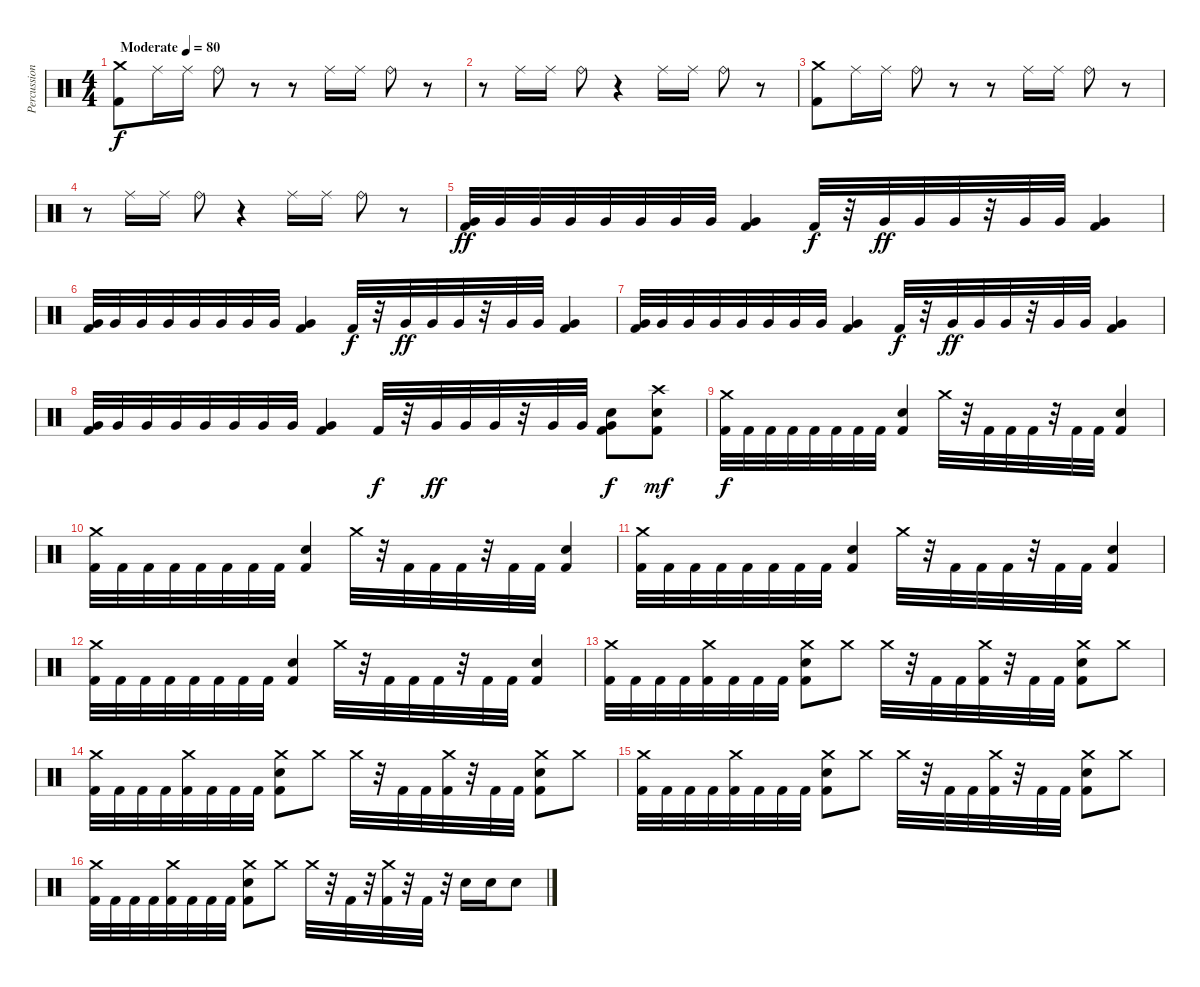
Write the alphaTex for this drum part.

\track ("Percussion" "Percussion") {instrument percussion}
\staff {score}
\articulation defaults
\ts (4 4)
\tempo (80 "Moderate")
\clef neutral
\ks c
("Crash medium (hit)" "Kick (hit) 2").8{dy f} "Ride (middle)".16 "Ride (middle)".16 "Ride (bell)".8 r.8 r.8 "Ride (middle)".16 "Ride (middle)".16 "Ride (bell)".8 r.8 |
r.8 "Ride (middle)".16 "Ride (middle)".16 "Ride (bell)".8 r.4 "Ride (middle)".16 "Ride (middle)".16 "Ride (bell)".8 r.8 |
("Crash medium (hit)" "Kick (hit) 2").8 "Ride (middle)".16 "Ride (middle)".16 "Ride (bell)".8 r.8 r.8 "Ride (middle)".16 "Ride (middle)".16 "Ride (bell)".8 r.8 |
r.8 "Ride (middle)".16 "Ride (middle)".16 "Ride (bell)".8 r.4 "Ride (middle)".16 "Ride (middle)".16 "Ride (bell)".8 r.8 |
("Very Low Tom (hit)" "Kick (hit) 2").32{dy ff} "Very Low Tom (hit)".32 "Very Low Tom (hit)".32 "Very Low Tom (hit)".32 "Very Low Tom (hit)".32 "Very Low Tom (hit)".32 "Very Low Tom (hit)".32 "Very Low Tom (hit)".32 ("Very Low Tom (hit)" "Kick (hit) 2").4 "Kick (hit) 2".32{dy f} r.32 "Very Low Tom (hit)".32{dy ff} "Very Low Tom (hit)".32 "Very Low Tom (hit)".32 r.32 "Very Low Tom (hit)".32 "Very Low Tom (hit)".32 ("Very Low Tom (hit)" "Kick (hit) 2").4 |
("Very Low Tom (hit)" "Kick (hit) 2").32 "Very Low Tom (hit)".32 "Very Low Tom (hit)".32 "Very Low Tom (hit)".32 "Very Low Tom (hit)".32 "Very Low Tom (hit)".32 "Very Low Tom (hit)".32 "Very Low Tom (hit)".32 ("Very Low Tom (hit)" "Kick (hit) 2").4 "Kick (hit) 2".32{dy f} r.32 "Very Low Tom (hit)".32{dy ff} "Very Low Tom (hit)".32 "Very Low Tom (hit)".32 r.32 "Very Low Tom (hit)".32 "Very Low Tom (hit)".32 ("Very Low Tom (hit)" "Kick (hit) 2").4 |
("Very Low Tom (hit)" "Kick (hit) 2").32 "Very Low Tom (hit)".32 "Very Low Tom (hit)".32 "Very Low Tom (hit)".32 "Very Low Tom (hit)".32 "Very Low Tom (hit)".32 "Very Low Tom (hit)".32 "Very Low Tom (hit)".32 ("Very Low Tom (hit)" "Kick (hit) 2").4 "Kick (hit) 2".32{dy f} r.32 "Very Low Tom (hit)".32{dy ff} "Very Low Tom (hit)".32 "Very Low Tom (hit)".32 r.32 "Very Low Tom (hit)".32 "Very Low Tom (hit)".32 ("Very Low Tom (hit)" "Kick (hit) 2").4 |
("Very Low Tom (hit)" "Kick (hit) 2").32 "Very Low Tom (hit)".32 "Very Low Tom (hit)".32 "Very Low Tom (hit)".32 "Very Low Tom (hit)".32 "Very Low Tom (hit)".32 "Very Low Tom (hit)".32 "Very Low Tom (hit)".32 ("Very Low Tom (hit)" "Kick (hit) 2").4 "Kick (hit) 2".32{dy f} r.32 "Very Low Tom (hit)".32{dy ff} "Very Low Tom (hit)".32 "Very Low Tom (hit)".32 r.32 "Very Low Tom (hit)".32 "Very Low Tom (hit)".32 ("Electric Snare (hit)" "Very Low Tom (hit)" "Kick (hit) 2").8{dy f} ("Crash high (hit)" "Electric Snare (hit)" "Kick (hit) 2").8{dy mf} |
("Crash medium (hit)" "Kick (hit) 2").32{dy f} "Kick (hit) 2".32 "Kick (hit) 2".32 "Kick (hit) 2".32 "Kick (hit) 2".32 "Kick (hit) 2".32 "Kick (hit) 2".32 "Kick (hit) 2".32 ("Electric Snare (hit)" "Kick (hit) 2").4 "Crash medium (hit)".32 r.32 "Kick (hit) 2".32 "Kick (hit) 2".32 "Kick (hit) 2".32 r.32 "Kick (hit) 2".32 "Kick (hit) 2".32 ("Electric Snare (hit)" "Kick (hit) 2").4 |
("Crash medium (hit)" "Kick (hit) 2").32 "Kick (hit) 2".32 "Kick (hit) 2".32 "Kick (hit) 2".32 "Kick (hit) 2".32 "Kick (hit) 2".32 "Kick (hit) 2".32 "Kick (hit) 2".32 ("Electric Snare (hit)" "Kick (hit) 2").4 "Crash medium (hit)".32 r.32 "Kick (hit) 2".32 "Kick (hit) 2".32 "Kick (hit) 2".32 r.32 "Kick (hit) 2".32 "Kick (hit) 2".32 ("Electric Snare (hit)" "Kick (hit) 2").4 |
("Crash medium (hit)" "Kick (hit) 2").32 "Kick (hit) 2".32 "Kick (hit) 2".32 "Kick (hit) 2".32 "Kick (hit) 2".32 "Kick (hit) 2".32 "Kick (hit) 2".32 "Kick (hit) 2".32 ("Electric Snare (hit)" "Kick (hit) 2").4 "Crash medium (hit)".32 r.32 "Kick (hit) 2".32 "Kick (hit) 2".32 "Kick (hit) 2".32 r.32 "Kick (hit) 2".32 "Kick (hit) 2".32 ("Electric Snare (hit)" "Kick (hit) 2").4 |
("Crash medium (hit)" "Kick (hit) 2").32 "Kick (hit) 2".32 "Kick (hit) 2".32 "Kick (hit) 2".32 "Kick (hit) 2".32 "Kick (hit) 2".32 "Kick (hit) 2".32 "Kick (hit) 2".32 ("Electric Snare (hit)" "Kick (hit) 2").4 "Crash medium (hit)".32 r.32 "Kick (hit) 2".32 "Kick (hit) 2".32 "Kick (hit) 2".32 r.32 "Kick (hit) 2".32 "Kick (hit) 2".32 ("Electric Snare (hit)" "Kick (hit) 2").4 |
("Crash medium (hit)" "Kick (hit) 2").32 "Kick (hit) 2".32 "Kick (hit) 2".32 "Kick (hit) 2".32 ("Crash medium (hit)" "Kick (hit) 2").32 "Kick (hit) 2".32 "Kick (hit) 2".32 "Kick (hit) 2".32 ("Crash medium (hit)" "Electric Snare (hit)" "Kick (hit) 2").8 "Crash medium (hit)".8 "Crash medium (hit)".32 r.32 "Kick (hit) 2".32 "Kick (hit) 2".32 ("Crash medium (hit)" "Kick (hit) 2").32 r.32 "Kick (hit) 2".32 "Kick (hit) 2".32 ("Crash medium (hit)" "Electric Snare (hit)" "Kick (hit) 2").8 "Crash medium (hit)".8 |
("Crash medium (hit)" "Kick (hit) 2").32 "Kick (hit) 2".32 "Kick (hit) 2".32 "Kick (hit) 2".32 ("Crash medium (hit)" "Kick (hit) 2").32 "Kick (hit) 2".32 "Kick (hit) 2".32 "Kick (hit) 2".32 ("Crash medium (hit)" "Electric Snare (hit)" "Kick (hit) 2").8 "Crash medium (hit)".8 "Crash medium (hit)".32 r.32 "Kick (hit) 2".32 "Kick (hit) 2".32 ("Crash medium (hit)" "Kick (hit) 2").32 r.32 "Kick (hit) 2".32 "Kick (hit) 2".32 ("Crash medium (hit)" "Electric Snare (hit)" "Kick (hit) 2").8 "Crash medium (hit)".8 |
("Crash medium (hit)" "Kick (hit) 2").32 "Kick (hit) 2".32 "Kick (hit) 2".32 "Kick (hit) 2".32 ("Crash medium (hit)" "Kick (hit) 2").32 "Kick (hit) 2".32 "Kick (hit) 2".32 "Kick (hit) 2".32 ("Crash medium (hit)" "Electric Snare (hit)" "Kick (hit) 2").8 "Crash medium (hit)".8 "Crash medium (hit)".32 r.32 "Kick (hit) 2".32 "Kick (hit) 2".32 ("Crash medium (hit)" "Kick (hit) 2").32 r.32 "Kick (hit) 2".32 "Kick (hit) 2".32 ("Crash medium (hit)" "Electric Snare (hit)" "Kick (hit) 2").8 "Crash medium (hit)".8 |
("Crash medium (hit)" "Kick (hit) 2").32 "Kick (hit) 2".32 "Kick (hit) 2".32 "Kick (hit) 2".32 ("Crash medium (hit)" "Kick (hit) 2").32 "Kick (hit) 2".32 "Kick (hit) 2".32 "Kick (hit) 2".32 ("Crash medium (hit)" "Electric Snare (hit)" "Kick (hit) 2").8 "Crash medium (hit)".8 "Crash medium (hit)".32 r.32 "Kick (hit) 2".32 r.32 ("Crash medium (hit)" "Kick (hit) 2").32 r.32 "Kick (hit) 2".32 r.32 "Electric Snare (hit)".16 "Electric Snare (hit)".16 "Electric Snare (hit)".8
